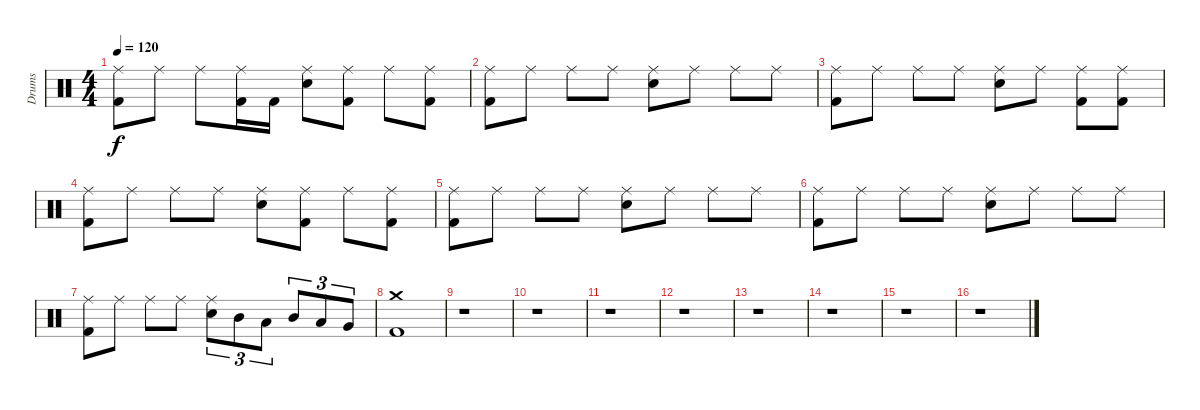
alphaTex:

\track ("Drums" "Drums") {instrument percussion}
\staff {score}
\articulation defaults
\ts (4 4)
\tempo 120
\clef neutral
\ks c
("Kick (hit) 2" "Ride (middle)").8{dy f} "Ride (middle)".8 "Ride (middle)".8 ("Kick (hit) 2" "Ride (middle)").16 "Kick (hit) 2".16 ("Electric Snare (hit)" "Ride (middle)").8 ("Kick (hit) 2" "Ride (middle)").8 "Ride (middle)".8 ("Kick (hit) 2" "Ride (middle)").8 |
("Kick (hit) 2" "Ride (middle)").8 "Ride (middle)".8 "Ride (middle)".8 "Ride (middle)".8 ("Electric Snare (hit)" "Ride (middle)").8 "Ride (middle)".8 "Ride (middle)".8 "Ride (middle)".8 |
("Kick (hit) 2" "Ride (middle)").8 "Ride (middle)".8 "Ride (middle)".8 "Ride (middle)".8 ("Electric Snare (hit)" "Ride (middle)").8 "Ride (middle)".8 ("Kick (hit) 2" "Ride (middle)").8 ("Kick (hit) 2" "Ride (middle)").8 |
("Kick (hit) 2" "Ride (middle)").8 "Ride (middle)".8 "Ride (middle)".8 "Ride (middle)".8 ("Electric Snare (hit)" "Ride (middle)").8 ("Kick (hit) 2" "Ride (middle)").8 "Ride (middle)".8 ("Kick (hit) 2" "Ride (middle)").8 |
("Kick (hit) 2" "Ride (middle)").8 "Ride (middle)".8 "Ride (middle)".8 "Ride (middle)".8 ("Electric Snare (hit)" "Ride (middle)").8 "Ride (middle)".8 "Ride (middle)".8 "Ride (middle)".8 |
("Kick (hit) 2" "Ride (middle)").8 "Ride (middle)".8 "Ride (middle)".8 "Ride (middle)".8 ("Electric Snare (hit)" "Ride (middle)").8 "Ride (middle)".8 "Ride (middle)".8 "Ride (middle)".8 |
("Kick (hit) 2" "Ride (middle)").8 "Ride (middle)".8 "Ride (middle)".8 "Ride (middle)".8 ("Electric Snare (hit)" "Ride (middle)").8{tu (3 2)} "Mid Tom (hit)".8{tu (3 2)} "Low Tom (hit)".8{tu (3 2)} "Mid Tom (hit)".8{tu (3 2)} "Low Tom (hit)".8{tu (3 2)} "Very Low Tom (hit)".8{tu (3 2)} |
("Kick (hit) 2" "Crash medium (hit)").1 |
r.1 |
r.1 |
r.1 |
r.1 |
r.1 |
r.1 |
r.1 |
r.1
